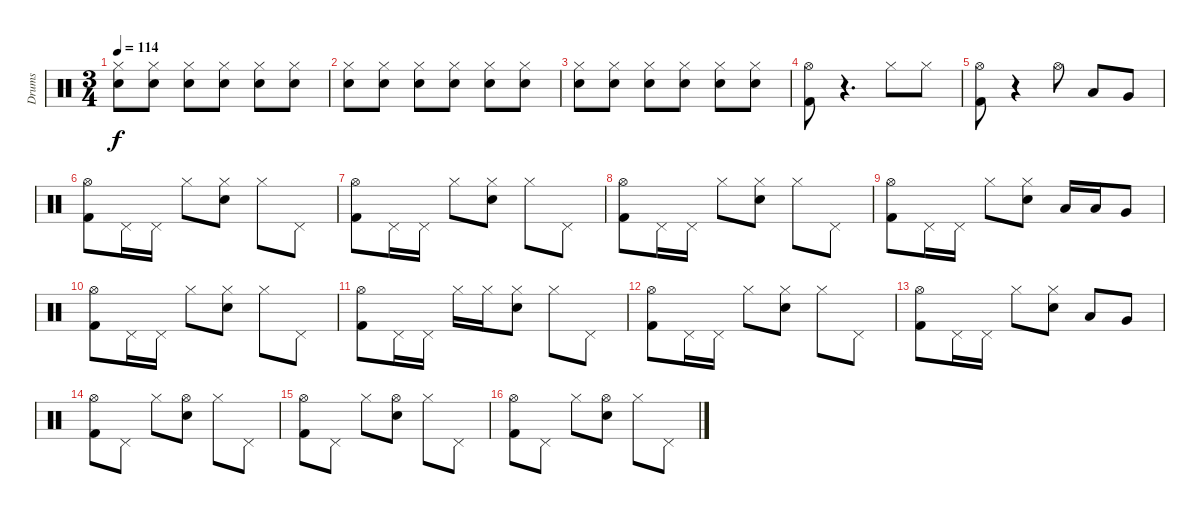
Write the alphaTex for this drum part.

\track ("Drums" "Drums") {instrument percussion}
\staff {score}
\articulation defaults
\ts (3 4)
\tempo 114
\clef neutral
\ks c
("Hi-Hat (closed)" "Electric Snare (hit)").8{dy f} ("Hi-Hat (closed)" "Electric Snare (hit)").8 ("Hi-Hat (closed)" "Electric Snare (hit)").8 ("Hi-Hat (closed)" "Electric Snare (hit)").8 ("Hi-Hat (closed)" "Electric Snare (hit)").8 ("Hi-Hat (closed)" "Electric Snare (hit)").8 |
("Hi-Hat (closed)" "Electric Snare (hit)").8 ("Hi-Hat (closed)" "Electric Snare (hit)").8 ("Hi-Hat (closed)" "Electric Snare (hit)").8 ("Hi-Hat (closed)" "Electric Snare (hit)").8 ("Hi-Hat (closed)" "Electric Snare (hit)").8 ("Hi-Hat (closed)" "Electric Snare (hit)").8 |
("Hi-Hat (closed)" "Electric Snare (hit)").8 ("Hi-Hat (closed)" "Electric Snare (hit)").8 ("Hi-Hat (closed)" "Electric Snare (hit)").8 ("Hi-Hat (closed)" "Electric Snare (hit)").8 ("Hi-Hat (closed)" "Electric Snare (hit)").8 ("Hi-Hat (closed)" "Electric Snare (hit)").8 |
("Hi-Hat (open)" "Kick (hit) 2").8 r.4{d} "Hi-Hat (closed)".8 "Hi-Hat (closed)".8 |
("Hi-Hat (open)" "Kick (hit) 2").8 r.4 "Hi-Hat (open)".8 "Low Tom (hit)".8 "Very Low Tom (hit)".8 |
("Hi-Hat (open)" "Kick (hit) 2").8 "Pedal Hi-Hat (hit)".16 "Pedal Hi-Hat (hit)".16 "Hi-Hat (closed)".8 ("Hi-Hat (closed)" "Electric Snare (hit)").8 "Hi-Hat (closed)".8 "Pedal Hi-Hat (hit)".8 |
("Hi-Hat (open)" "Kick (hit) 2").8 "Pedal Hi-Hat (hit)".16 "Pedal Hi-Hat (hit)".16 "Hi-Hat (closed)".8 ("Hi-Hat (closed)" "Electric Snare (hit)").8 "Hi-Hat (closed)".8 "Pedal Hi-Hat (hit)".8 |
("Hi-Hat (open)" "Kick (hit) 2").8 "Pedal Hi-Hat (hit)".16 "Pedal Hi-Hat (hit)".16 "Hi-Hat (closed)".8 ("Hi-Hat (closed)" "Electric Snare (hit)").8 "Hi-Hat (closed)".8 "Pedal Hi-Hat (hit)".8 |
("Hi-Hat (open)" "Kick (hit) 2").8 "Pedal Hi-Hat (hit)".16 "Pedal Hi-Hat (hit)".16 "Hi-Hat (closed)".8 ("Hi-Hat (closed)" "Electric Snare (hit)").8 "Low Tom (hit)".16 "Low Tom (hit)".16 "Very Low Tom (hit)".8 |
("Hi-Hat (open)" "Kick (hit) 2").8 "Pedal Hi-Hat (hit)".16 "Pedal Hi-Hat (hit)".16 "Hi-Hat (closed)".8 ("Hi-Hat (closed)" "Electric Snare (hit)").8 "Hi-Hat (closed)".8 "Pedal Hi-Hat (hit)".8 |
("Hi-Hat (open)" "Kick (hit) 2").8 "Pedal Hi-Hat (hit)".16 "Pedal Hi-Hat (hit)".16 "Hi-Hat (closed)".16 "Hi-Hat (closed)".16 ("Hi-Hat (closed)" "Electric Snare (hit)").8 "Hi-Hat (closed)".8 "Pedal Hi-Hat (hit)".8 |
("Hi-Hat (open)" "Kick (hit) 2").8 "Pedal Hi-Hat (hit)".16 "Pedal Hi-Hat (hit)".16 "Hi-Hat (closed)".8 ("Hi-Hat (closed)" "Electric Snare (hit)").8 "Hi-Hat (closed)".8 "Pedal Hi-Hat (hit)".8 |
("Hi-Hat (open)" "Kick (hit) 2").8 "Pedal Hi-Hat (hit)".16 "Pedal Hi-Hat (hit)".16 "Hi-Hat (closed)".8 ("Hi-Hat (closed)" "Electric Snare (hit)").8 "Low Tom (hit)".8 "Very Low Tom (hit)".8 |
("Hi-Hat (open)" "Kick (hit) 2").8 "Pedal Hi-Hat (hit)".8 "Hi-Hat (closed)".8 ("Hi-Hat (open)" "Electric Snare (hit)").8 "Hi-Hat (closed)".8 "Pedal Hi-Hat (hit)".8 |
("Hi-Hat (open)" "Kick (hit) 2").8 "Pedal Hi-Hat (hit)".8 "Hi-Hat (closed)".8 ("Hi-Hat (open)" "Electric Snare (hit)").8 "Hi-Hat (closed)".8 "Pedal Hi-Hat (hit)".8 |
("Hi-Hat (open)" "Kick (hit) 2").8 "Pedal Hi-Hat (hit)".8 "Hi-Hat (closed)".8 ("Hi-Hat (open)" "Electric Snare (hit)").8 "Hi-Hat (closed)".8 "Pedal Hi-Hat (hit)".8
